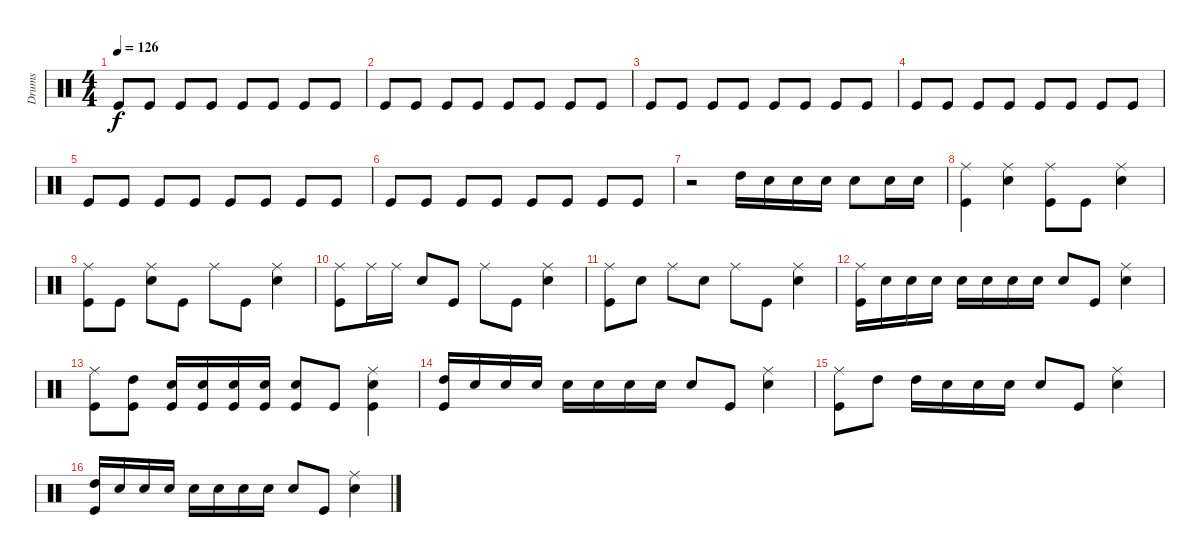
\track ("Drums" "Drums") {instrument percussion}
\staff {score}
\articulation defaults
\ts (4 4)
\tempo 126
\clef neutral
\ks c "Kick (hit)".8{dy f} "Kick (hit)".8 "Kick (hit)".8 "Kick (hit)".8 "Kick (hit)".8 "Kick (hit)".8 "Kick (hit)".8 "Kick (hit)".8
|
"Kick (hit)".8 "Kick (hit)".8 "Kick (hit)".8 "Kick (hit)".8 "Kick (hit)".8 "Kick (hit)".8 "Kick (hit)".8 "Kick (hit)".8 |
"Kick (hit)".8 "Kick (hit)".8 "Kick (hit)".8 "Kick (hit)".8 "Kick (hit)".8 "Kick (hit)".8 "Kick (hit)".8 "Kick (hit)".8 |
"Kick (hit)".8 "Kick (hit)".8 "Kick (hit)".8 "Kick (hit)".8 "Kick (hit)".8 "Kick (hit)".8 "Kick (hit)".8 "Kick (hit)".8 |
"Kick (hit)".8 "Kick (hit)".8 "Kick (hit)".8 "Kick (hit)".8 "Kick (hit)".8 "Kick (hit)".8 "Kick (hit)".8 "Kick (hit)".8 |
"Kick (hit)".8 "Kick (hit)".8 "Kick (hit)".8 "Kick (hit)".8 "Kick (hit)".8 "Kick (hit)".8 "Kick (hit)".8 "Kick (hit)".8 |
r.2 "High Tom (hit)".16 "Electric Snare (hit)".16 "Electric Snare (hit)".16 "Electric Snare (hit)".16 "Electric Snare (hit)".8 "Electric Snare (hit)".16 "Electric Snare (hit)".16 |
("Ride (middle)" "Kick (hit)").4 ("Ride (middle)" "Electric Snare (hit)").4 ("Ride (middle)" "Kick (hit)").8 "Kick (hit)".8 ("Ride (middle)" "Electric Snare (hit)").4 |
("Ride (middle)" "Kick (hit)").8 "Kick (hit)".8 ("Ride (middle)" "Electric Snare (hit)").8 "Kick (hit)".8 "Ride (middle)".8 "Kick (hit)".8 ("Ride (middle)" "Electric Snare (hit)").4 |
("Ride (middle)" "Kick (hit)").8 "Ride (middle)".16 "Ride (middle)".16 "Electric Snare (hit)".8 "Kick (hit)".8 "Ride (middle)".8 "Kick (hit)".8 ("Ride (middle)" "Electric Snare (hit)").4 |
("Ride (middle)" "Kick (hit)").8 "Electric Snare (hit)".8 "Ride (middle)".8 "Electric Snare (hit)".8 "Ride (middle)".8 "Kick (hit)".8 ("Ride (middle)" "Electric Snare (hit)").4 |
("Ride (middle)" "Kick (hit)").16 "Electric Snare (hit)".16 "Electric Snare (hit)".16 "Electric Snare (hit)".16 "Electric Snare (hit)".16 "Electric Snare (hit)".16 "Electric Snare (hit)".16 "Electric Snare (hit)".16 "Electric Snare (hit)".8 "Kick (hit)".8 ("Ride (middle)" "Electric Snare (hit)").4 |
("Ride (middle)" "Kick (hit)").8 ("High Tom (hit)" "Kick (hit)").8 ("Electric Snare (hit)" "Kick (hit)").16 ("Electric Snare (hit)" "Kick (hit)").16 ("Electric Snare (hit)" "Kick (hit)").16 ("Electric Snare (hit)" "Kick (hit)").16 ("Electric Snare (hit)" "Kick (hit)").8 "Kick (hit)".8 ("Ride (middle)" "Electric Snare (hit)" "Kick (hit)").4 |
("High Tom (hit)" "Kick (hit)").16 "Electric Snare (hit)".16 "Electric Snare (hit)".16 "Electric Snare (hit)".16 "Electric Snare (hit)".16 "Electric Snare (hit)".16 "Electric Snare (hit)".16 "Electric Snare (hit)".16 "Electric Snare (hit)".8 "Kick (hit)".8 ("Ride (middle)" "Electric Snare (hit)").4 |
("Ride (middle)" "Kick (hit)").8 "High Tom (hit)".8 "High Tom (hit)".16 "Electric Snare (hit)".16 "Electric Snare (hit)".16 "Electric Snare (hit)".16 "Electric Snare (hit)".8 "Kick (hit)".8 ("Ride (middle)" "Electric Snare (hit)").4 |
("High Tom (hit)" "Kick (hit)").16 "Electric Snare (hit)".16 "Electric Snare (hit)".16 "Electric Snare (hit)".16 "Electric Snare (hit)".16 "Electric Snare (hit)".16 "Electric Snare (hit)".16 "Electric Snare (hit)".16 "Electric Snare (hit)".8 "Kick (hit)".8 ("Ride (middle)" "Electric Snare (hit)").4
